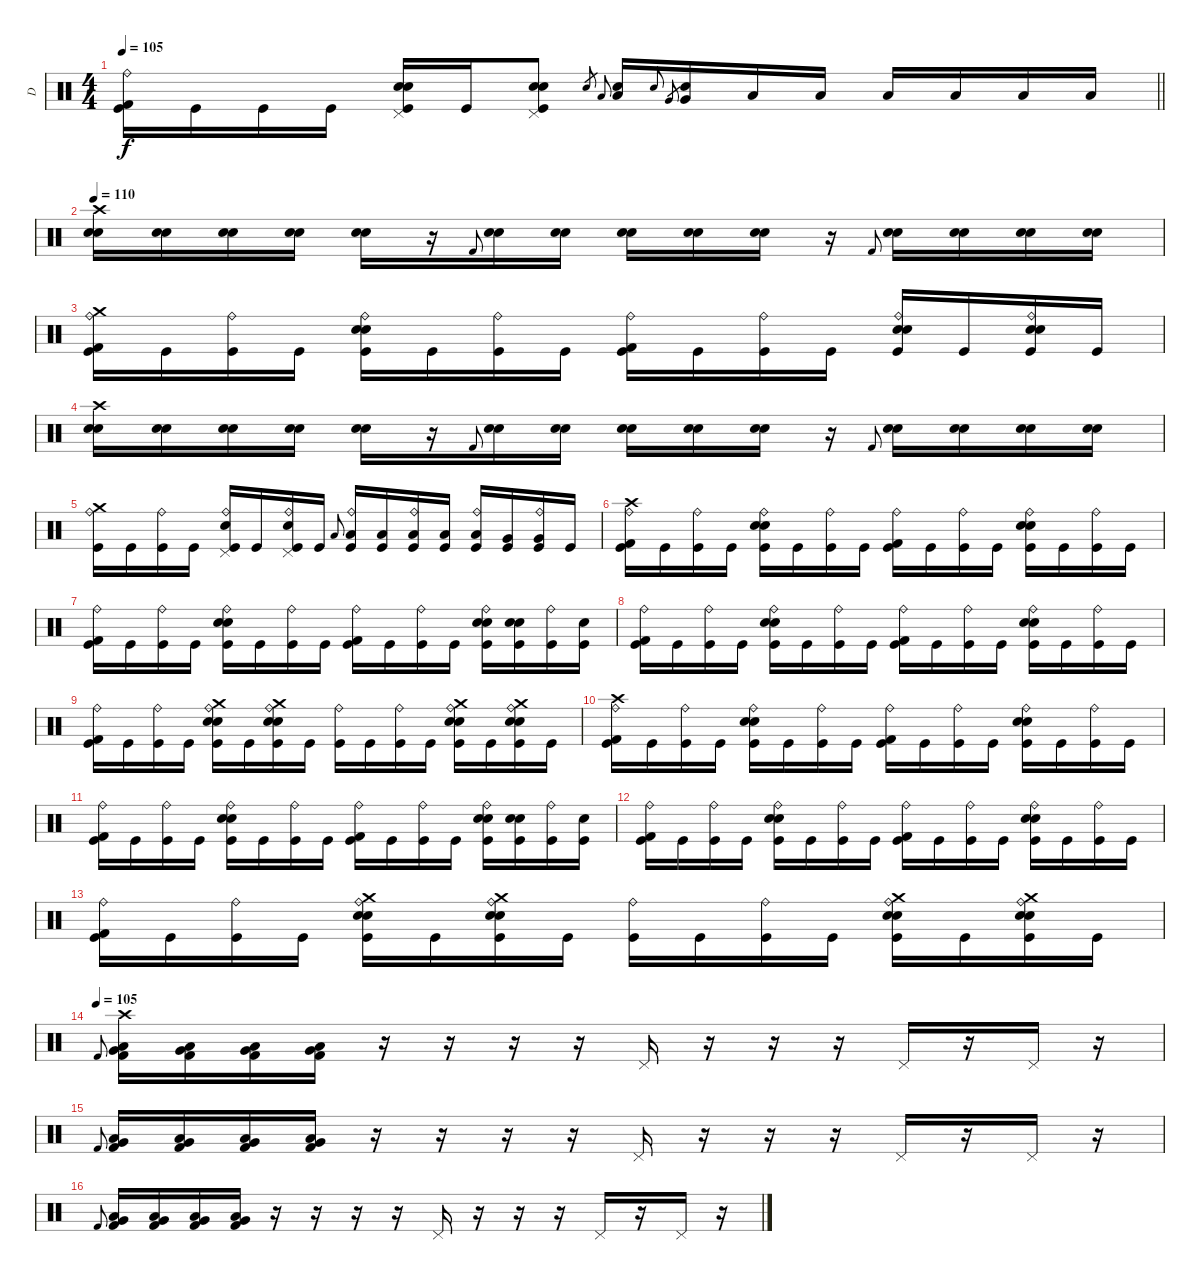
\track ("D" "D") {instrument percussion}
\staff {score}
\articulation defaults
\ts (4 4)
\tempo 105
\clef neutral
\barLineRight lightlight
\ks c
("Kick (hit) 2" "Kick (hit)" "Ride (bell)").16{dy f} "Kick (hit)".16 "Kick (hit)".16 "Kick (hit)".16 ("Electric Snare (hit)" "Electric Snare (hit)" "Kick (hit)" "Pedal Hi-Hat (hit)").16 "Kick (hit)".16 ("Electric Snare (hit)" "Electric Snare (hit)" "Kick (hit)" "Pedal Hi-Hat (hit)").8 "Electric Snare (hit)".16{gr} "Low Tom (hit)".16{gr onbeat} ("Electric Snare (hit)" "Low Tom (hit)").16 "Electric Snare (hit)".16{gr onbeat} "Very Low Tom (hit)".16{gr} ("Electric Snare (hit)" "Very Low Tom (hit)").16 "Low Floor Tom (hit)".16 "Low Tom (hit)".16 "Low Tom (hit)".16 "Low Tom (hit)".16 "Low Tom (hit)".16 "Low Tom (hit)".16 |
\tempo 110
("Crash high (hit)" "Electric Snare (hit)" "Electric Snare (hit)").16 ("Electric Snare (hit)" "Electric Snare (hit)").16 ("Electric Snare (hit)" "Electric Snare (hit)").16 ("Electric Snare (hit)" "Electric Snare (hit)").16 ("Electric Snare (hit)" "Electric Snare (hit)").16 r.16 "Kick (hit) 2".8{gr onbeat} ("Electric Snare (hit)" "Electric Snare (hit)").16 ("Electric Snare (hit)" "Electric Snare (hit)").16 ("Electric Snare (hit)" "Electric Snare (hit)").16 ("Electric Snare (hit)" "Electric Snare (hit)").16 ("Electric Snare (hit)" "Electric Snare (hit)").16 r.16 "Kick (hit) 2".8{gr onbeat} ("Electric Snare (hit)" "Electric Snare (hit)").16 ("Electric Snare (hit)" "Electric Snare (hit)").16 ("Electric Snare (hit)" "Electric Snare (hit)").16 ("Electric Snare (hit)" "Electric Snare (hit)").16 |
("Crash medium (hit)" "Kick (hit) 2" "Kick (hit)" "Ride (bell)").16 "Kick (hit)".16 ("Kick (hit)" "Ride (bell)").16 "Kick (hit)".16 ("Electric Snare (hit)" "Electric Snare (hit)" "Kick (hit)" "Ride (bell)").16 "Kick (hit)".16 ("Kick (hit)" "Ride (bell)").16 "Kick (hit)".16 ("Kick (hit) 2" "Kick (hit)" "Ride (bell)").16 "Kick (hit)".16 ("Kick (hit)" "Ride (bell)").16 "Kick (hit)".16 ("Electric Snare (hit)" "Electric Snare (hit)" "Kick (hit)" "Ride (bell)").16 "Kick (hit)".16 ("Electric Snare (hit)" "Electric Snare (hit)" "Kick (hit)" "Ride (bell)").16 "Kick (hit)".16 |
("Crash high (hit)" "Electric Snare (hit)" "Electric Snare (hit)").16 ("Electric Snare (hit)" "Electric Snare (hit)").16 ("Electric Snare (hit)" "Electric Snare (hit)").16 ("Electric Snare (hit)" "Electric Snare (hit)").16 ("Electric Snare (hit)" "Electric Snare (hit)").16 r.16 "Kick (hit) 2".8{gr onbeat} ("Electric Snare (hit)" "Electric Snare (hit)").16 ("Electric Snare (hit)" "Electric Snare (hit)").16 ("Electric Snare (hit)" "Electric Snare (hit)").16 ("Electric Snare (hit)" "Electric Snare (hit)").16 ("Electric Snare (hit)" "Electric Snare (hit)").16 r.16 "Kick (hit) 2".8{gr onbeat} ("Electric Snare (hit)" "Electric Snare (hit)").16 ("Electric Snare (hit)" "Electric Snare (hit)").16 ("Electric Snare (hit)" "Electric Snare (hit)").16 ("Electric Snare (hit)" "Electric Snare (hit)").16 |
("Crash medium (hit)" "Kick (hit)" "Ride (bell)").16 "Kick (hit)".16 ("Kick (hit)" "Ride (bell)").16 "Kick (hit)".16 ("Electric Snare (hit)" "Pedal Hi-Hat (hit)" "Kick (hit)" "Ride (bell)").16 "Kick (hit)".16 ("Electric Snare (hit)" "Pedal Hi-Hat (hit)" "Kick (hit)" "Ride (bell)").16 "Kick (hit)".16 "Low Tom (hit)".8{gr onbeat} ("Low Tom (hit)" "Kick (hit)" "Ride (bell)").16 ("Low Tom (hit)" "Kick (hit)").16 ("Low Tom (hit)" "Kick (hit)" "Ride (bell)").16 ("Low Tom (hit)" "Kick (hit)").16 ("Low Tom (hit)" "Kick (hit)" "Ride (bell)").16 ("Very Low Tom (hit)" "Kick (hit)").16 ("Very Low Tom (hit)" "Kick (hit)" "Ride (bell)").16 "Kick (hit)".16 |
("Crash high (hit)" "Kick (hit) 2" "Kick (hit)" "Ride (bell)").16 "Kick (hit)".16 ("Kick (hit)" "Ride (bell)").16 "Kick (hit)".16 ("Electric Snare (hit)" "Electric Snare (hit)" "Kick (hit)" "Ride (bell)").16 "Kick (hit)".16 ("Kick (hit)" "Ride (bell)").16 "Kick (hit)".16 ("Kick (hit) 2" "Kick (hit)" "Ride (bell)").16 "Kick (hit)".16 ("Kick (hit)" "Ride (bell)").16 "Kick (hit)".16 ("Electric Snare (hit)" "Electric Snare (hit)" "Kick (hit)" "Ride (bell)").16 "Kick (hit)".16 ("Kick (hit)" "Ride (bell)").16 "Kick (hit)".16 |
("Kick (hit) 2" "Kick (hit)" "Ride (bell)").16 "Kick (hit)".16 ("Kick (hit)" "Ride (bell)").16 "Kick (hit)".16 ("Electric Snare (hit)" "Electric Snare (hit)" "Kick (hit)" "Ride (bell)").16 "Kick (hit)".16 ("Kick (hit)" "Ride (bell)").16 "Kick (hit)".16 ("Kick (hit) 2" "Kick (hit)" "Ride (bell)").16 "Kick (hit)".16 ("Kick (hit)" "Ride (bell)").16 "Kick (hit)".16 ("Electric Snare (hit)" "Electric Snare (hit)" "Kick (hit)" "Ride (bell)").16 ("Electric Snare (hit)" "Electric Snare (hit)" "Kick (hit)").16 ("Kick (hit)" "Ride (bell)").16 ("Electric Snare (hit)" "Kick (hit)").16 |
("Kick (hit) 2" "Kick (hit)" "Ride (bell)").16 "Kick (hit)".16 ("Kick (hit)" "Ride (bell)").16 "Kick (hit)".16 ("Electric Snare (hit)" "Electric Snare (hit)" "Kick (hit)" "Ride (bell)").16 "Kick (hit)".16 ("Kick (hit)" "Ride (bell)").16 "Kick (hit)".16 ("Kick (hit) 2" "Kick (hit)" "Ride (bell)").16 "Kick (hit)".16 ("Kick (hit)" "Ride (bell)").16 "Kick (hit)".16 ("Electric Snare (hit)" "Electric Snare (hit)" "Kick (hit)" "Ride (bell)").16 "Kick (hit)".16 ("Kick (hit)" "Ride (bell)").16 "Kick (hit)".16 |
("Kick (hit) 2" "Kick (hit)" "Ride (bell)").16 "Kick (hit)".16 ("Kick (hit)" "Ride (bell)").16 "Kick (hit)".16 ("Crash medium (hit)" "Electric Snare (hit)" "Electric Snare (hit)" "Kick (hit)" "Ride (bell)").16 "Kick (hit)".16 ("Crash medium (hit)" "Electric Snare (hit)" "Electric Snare (hit)" "Kick (hit)" "Ride (bell)").16 "Kick (hit)".16 ("Kick (hit)" "Ride (bell)").16 "Kick (hit)".16 ("Kick (hit)" "Ride (bell)").16 "Kick (hit)".16 ("Crash medium (hit)" "Electric Snare (hit)" "Electric Snare (hit)" "Kick (hit)" "Ride (bell)").16 "Kick (hit)".16 ("Crash medium (hit)" "Electric Snare (hit)" "Electric Snare (hit)" "Kick (hit)" "Ride (bell)").16 "Kick (hit)".16 |
("Crash high (hit)" "Kick (hit) 2" "Kick (hit)" "Ride (bell)").16 "Kick (hit)".16 ("Kick (hit)" "Ride (bell)").16 "Kick (hit)".16 ("Electric Snare (hit)" "Electric Snare (hit)" "Kick (hit)" "Ride (bell)").16 "Kick (hit)".16 ("Kick (hit)" "Ride (bell)").16 "Kick (hit)".16 ("Kick (hit) 2" "Kick (hit)" "Ride (bell)").16 "Kick (hit)".16 ("Kick (hit)" "Ride (bell)").16 "Kick (hit)".16 ("Electric Snare (hit)" "Electric Snare (hit)" "Kick (hit)" "Ride (bell)").16 "Kick (hit)".16 ("Kick (hit)" "Ride (bell)").16 "Kick (hit)".16 |
("Kick (hit) 2" "Kick (hit)" "Ride (bell)").16 "Kick (hit)".16 ("Kick (hit)" "Ride (bell)").16 "Kick (hit)".16 ("Electric Snare (hit)" "Electric Snare (hit)" "Kick (hit)" "Ride (bell)").16 "Kick (hit)".16 ("Kick (hit)" "Ride (bell)").16 "Kick (hit)".16 ("Kick (hit) 2" "Kick (hit)" "Ride (bell)").16 "Kick (hit)".16 ("Kick (hit)" "Ride (bell)").16 "Kick (hit)".16 ("Electric Snare (hit)" "Electric Snare (hit)" "Kick (hit)" "Ride (bell)").16 ("Electric Snare (hit)" "Electric Snare (hit)" "Kick (hit)").16 ("Kick (hit)" "Ride (bell)").16 ("Electric Snare (hit)" "Kick (hit)").16 |
("Kick (hit) 2" "Kick (hit)" "Ride (bell)").16 "Kick (hit)".16 ("Kick (hit)" "Ride (bell)").16 "Kick (hit)".16 ("Electric Snare (hit)" "Electric Snare (hit)" "Kick (hit)" "Ride (bell)").16 "Kick (hit)".16 ("Kick (hit)" "Ride (bell)").16 "Kick (hit)".16 ("Kick (hit) 2" "Kick (hit)" "Ride (bell)").16 "Kick (hit)".16 ("Kick (hit)" "Ride (bell)").16 "Kick (hit)".16 ("Electric Snare (hit)" "Electric Snare (hit)" "Kick (hit)" "Ride (bell)").16 "Kick (hit)".16 ("Kick (hit)" "Ride (bell)").16 "Kick (hit)".16 |
("Kick (hit) 2" "Kick (hit)" "Ride (bell)").16 "Kick (hit)".16 ("Kick (hit)" "Ride (bell)").16 "Kick (hit)".16 ("Crash medium (hit)" "Electric Snare (hit)" "Electric Snare (hit)" "Kick (hit)" "Ride (bell)").16 "Kick (hit)".16 ("Crash medium (hit)" "Electric Snare (hit)" "Electric Snare (hit)" "Kick (hit)" "Ride (bell)").16 "Kick (hit)".16 ("Kick (hit)" "Ride (bell)").16 "Kick (hit)".16 ("Kick (hit)" "Ride (bell)").16 "Kick (hit)".16 ("Crash medium (hit)" "Electric Snare (hit)" "Electric Snare (hit)" "Kick (hit)" "Ride (bell)").16 "Kick (hit)".16 ("Crash medium (hit)" "Electric Snare (hit)" "Electric Snare (hit)" "Kick (hit)" "Ride (bell)").16 "Kick (hit)".16 |
\tempo (105)
"Kick (hit) 2".8{gr onbeat} ("Crash high (hit)" "Low Floor Tom (hit)" "Very Low Tom (hit)" "Kick (hit) 2").16 ("Low Floor Tom (hit)" "Very Low Tom (hit)" "Kick (hit) 2").16 ("Low Floor Tom (hit)" "Very Low Tom (hit)" "Kick (hit) 2").16 ("Low Floor Tom (hit)" "Very Low Tom (hit)" "Kick (hit) 2").16 r.16 r.16 r.16 r.16 "Pedal Hi-Hat (hit)".16 r.16 r.16 r.16 "Pedal Hi-Hat (hit)".16 r.16 "Pedal Hi-Hat (hit)".16 r.16 |
"Kick (hit) 2".8{gr onbeat} ("Low Floor Tom (hit)" "Very Low Tom (hit)" "Kick (hit) 2").16 ("Low Floor Tom (hit)" "Very Low Tom (hit)" "Kick (hit) 2").16 ("Low Floor Tom (hit)" "Very Low Tom (hit)" "Kick (hit) 2").16 ("Low Floor Tom (hit)" "Very Low Tom (hit)" "Kick (hit) 2").16 r.16 r.16 r.16 r.16 "Pedal Hi-Hat (hit)".16 r.16 r.16 r.16 "Pedal Hi-Hat (hit)".16 r.16 "Pedal Hi-Hat (hit)".16 r.16 |
"Kick (hit) 2".8{gr onbeat} ("Low Floor Tom (hit)" "Very Low Tom (hit)" "Kick (hit) 2").16 ("Low Floor Tom (hit)" "Very Low Tom (hit)" "Kick (hit) 2").16 ("Low Floor Tom (hit)" "Very Low Tom (hit)" "Kick (hit) 2").16 ("Low Floor Tom (hit)" "Very Low Tom (hit)" "Kick (hit) 2").16 r.16 r.16 r.16 r.16 "Pedal Hi-Hat (hit)".16 r.16 r.16 r.16 "Pedal Hi-Hat (hit)".16 r.16 "Pedal Hi-Hat (hit)".16 r.16
